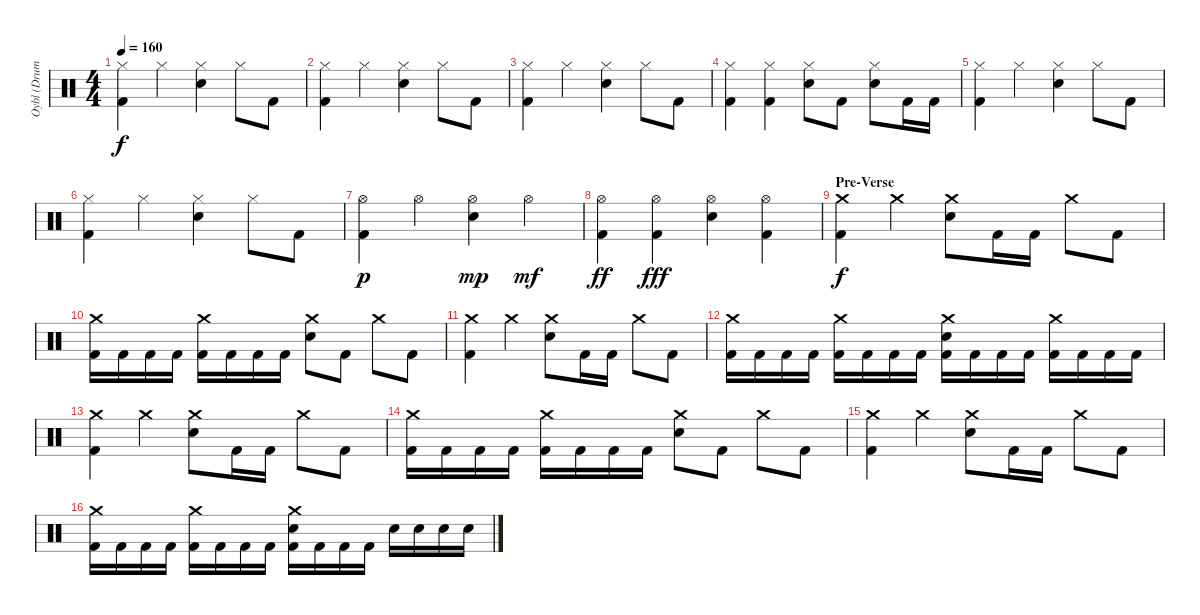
\track ("Oybl (Drums)" "Oybl (Drum") {instrument percussion}
\staff {score}
\articulation defaults
\ts (4 4)
\tempo 160
\clef neutral
\ks c
("Hi-Hat (closed)" "Kick (hit) 2").4{dy f} "Hi-Hat (closed)".4 ("Hi-Hat (closed)" "Snare (hit) 2").4 "Hi-Hat (closed)".8 "Kick (hit) 2".8 |
("Hi-Hat (closed)" "Kick (hit) 2").4 "Hi-Hat (closed)".4 ("Hi-Hat (closed)" "Snare (hit) 2").4 "Hi-Hat (closed)".8 "Kick (hit) 2".8 |
("Hi-Hat (closed)" "Kick (hit) 2").4 "Hi-Hat (closed)".4 ("Hi-Hat (closed)" "Snare (hit) 2").4 "Hi-Hat (closed)".8 "Kick (hit) 2".8 |
("Hi-Hat (closed)" "Kick (hit) 2").4 ("Hi-Hat (closed)" "Kick (hit) 2").4 ("Hi-Hat (closed)" "Snare (hit) 2").8 "Kick (hit) 2".8 ("Hi-Hat (closed)" "Snare (hit) 2").8 "Kick (hit) 2".16 "Kick (hit) 2".16 |
("Hi-Hat (closed)" "Kick (hit) 2").4 "Hi-Hat (closed)".4 ("Hi-Hat (closed)" "Snare (hit) 2").4 "Hi-Hat (closed)".8 "Kick (hit) 2".8 |
("Hi-Hat (closed)" "Kick (hit) 2").4 "Hi-Hat (closed)".4 ("Hi-Hat (closed)" "Snare (hit) 2").4 "Hi-Hat (closed)".8 "Kick (hit) 2".8 |
("Hi-Hat (open)" "Kick (hit) 2").4{dy p} "Hi-Hat (open)".4 ("Hi-Hat (open)" "Snare (hit) 2").4{dy mp} "Hi-Hat (open)".4{dy mf} |
("Hi-Hat (open)" "Kick (hit) 2").4{dy ff} ("Hi-Hat (open)" "Kick (hit) 2").4{dy fff} ("Hi-Hat (open)" "Snare (hit) 2").4 ("Hi-Hat (open)" "Kick (hit) 2").4 |
\section ("" "Pre-Verse")
("Crash medium (hit)" "Kick (hit) 2").4{dy f} "Crash medium (hit)".4 ("Crash medium (hit)" "Snare (hit) 2").8 "Kick (hit) 2".16 "Kick (hit) 2".16 "Crash medium (hit)".8 "Kick (hit) 2".8 |
("Crash medium (hit)" "Kick (hit) 2").16 "Kick (hit) 2".16 "Kick (hit) 2".16 "Kick (hit) 2".16 ("Crash medium (hit)" "Kick (hit) 2").16 "Kick (hit) 2".16 "Kick (hit) 2".16 "Kick (hit) 2".16 ("Crash medium (hit)" "Snare (hit) 2").8 "Kick (hit) 2".8 "Crash medium (hit)".8 "Kick (hit) 2".8 |
("Crash medium (hit)" "Kick (hit) 2").4 "Crash medium (hit)".4 ("Crash medium (hit)" "Snare (hit) 2").8 "Kick (hit) 2".16 "Kick (hit) 2".16 "Crash medium (hit)".8 "Kick (hit) 2".8 |
("Crash medium (hit)" "Kick (hit) 2").16 "Kick (hit) 2".16 "Kick (hit) 2".16 "Kick (hit) 2".16 ("Crash medium (hit)" "Kick (hit) 2").16 "Kick (hit) 2".16 "Kick (hit) 2".16 "Kick (hit) 2".16 ("Crash medium (hit)" "Snare (hit) 2" "Kick (hit) 2").16 "Kick (hit) 2".16 "Kick (hit) 2".16 "Kick (hit) 2".16 ("Crash medium (hit)" "Kick (hit) 2").16 "Kick (hit) 2".16 "Kick (hit) 2".16 "Kick (hit) 2".16 |
("Crash medium (hit)" "Kick (hit) 2").4 "Crash medium (hit)".4 ("Crash medium (hit)" "Snare (hit) 2").8 "Kick (hit) 2".16 "Kick (hit) 2".16 "Crash medium (hit)".8 "Kick (hit) 2".8 |
("Crash medium (hit)" "Kick (hit) 2").16 "Kick (hit) 2".16 "Kick (hit) 2".16 "Kick (hit) 2".16 ("Crash medium (hit)" "Kick (hit) 2").16 "Kick (hit) 2".16 "Kick (hit) 2".16 "Kick (hit) 2".16 ("Crash medium (hit)" "Snare (hit) 2").8 "Kick (hit) 2".8 "Crash medium (hit)".8 "Kick (hit) 2".8 |
("Crash medium (hit)" "Kick (hit) 2").4 "Crash medium (hit)".4 ("Crash medium (hit)" "Snare (hit) 2").8 "Kick (hit) 2".16 "Kick (hit) 2".16 "Crash medium (hit)".8 "Kick (hit) 2".8 |
("Crash medium (hit)" "Kick (hit) 2").16 "Kick (hit) 2".16 "Kick (hit) 2".16 "Kick (hit) 2".16 ("Crash medium (hit)" "Kick (hit) 2").16 "Kick (hit) 2".16 "Kick (hit) 2".16 "Kick (hit) 2".16 ("Crash medium (hit)" "Snare (hit) 2" "Kick (hit) 2").16 "Kick (hit) 2".16 "Kick (hit) 2".16 "Kick (hit) 2".16 "Snare (hit) 2".16 "Snare (hit) 2".16 "Snare (hit) 2".16 "Snare (hit) 2".16
